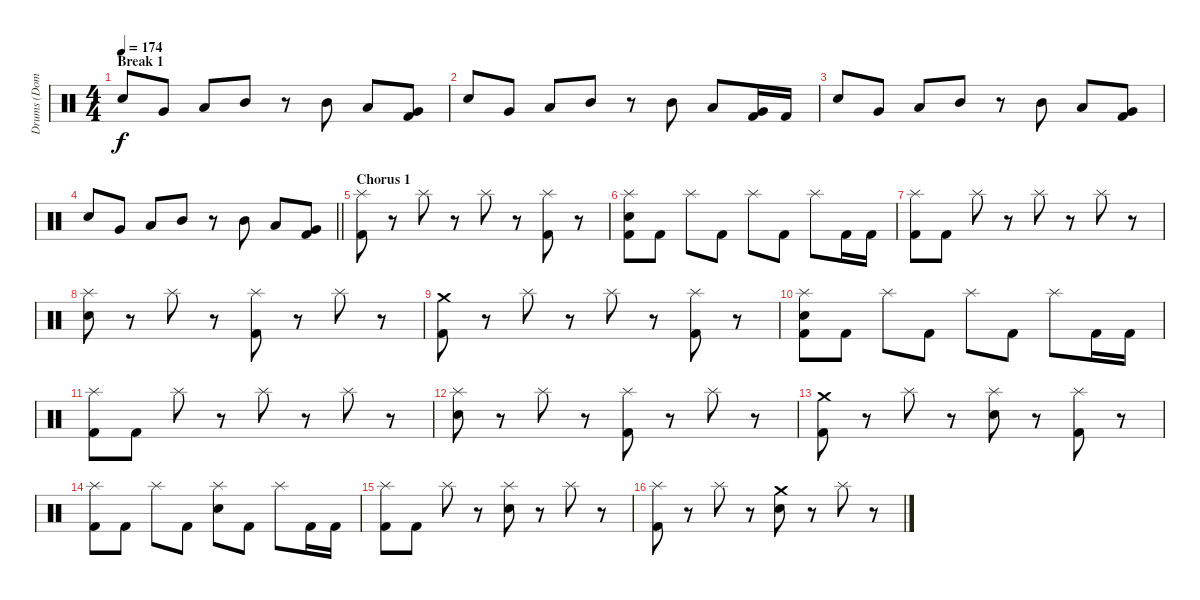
\track ("Drums (Dominik)" "Drums (Dom") {instrument percussion}
\staff {score}
\articulation defaults
\ts (4 4)
\section ("" "Break 1")
\tempo 174
\clef neutral
\ks c "Electric Snare (hit)".8{dy f} "Very Low Tom (hit)".8 "Low Tom (hit)".8 "Mid Tom (hit)".8
r.8 "Mid Tom (hit)".8 "Low Tom (hit)".8 ("Very Low Tom (hit)" "Kick (hit) 2").8 |
"Electric Snare (hit)".8 "Very Low Tom (hit)".8 "Low Tom (hit)".8 "Mid Tom (hit)".8 r.8 "Mid Tom (hit)".8 "Low Tom (hit)".8 ("Very Low Tom (hit)" "Kick (hit) 2").16 "Kick (hit) 2".16 |
"Electric Snare (hit)".8 "Very Low Tom (hit)".8 "Low Tom (hit)".8 "Mid Tom (hit)".8 r.8 "Mid Tom (hit)".8 "Low Tom (hit)".8 ("Very Low Tom (hit)" "Kick (hit) 2").8 |
\barLineRight lightlight "Electric Snare (hit)".8 "Very Low Tom (hit)".8 "Low Tom (hit)".8 "Mid Tom (hit)".8
r.8 "Mid Tom (hit)".8 "Low Tom (hit)".8 ("Very Low Tom (hit)" "Kick (hit) 2").8 |
\section ("" "Chorus 1")
("Splash (hit)" "Kick (hit) 2").8 r.8 "Splash (hit)".8 r.8 "Splash (hit)".8 r.8 ("Splash (hit)" "Kick (hit) 2").8 r.8 |
("Splash (hit)" "Electric Snare (hit)" "Kick (hit) 2").8 "Kick (hit) 2".8 "Splash (hit)".8 "Kick (hit) 2".8 "Splash (hit)".8 "Kick (hit) 2".8 "Splash (hit)".8 "Kick (hit) 2".16 "Kick (hit) 2".16 |
("Splash (hit)" "Kick (hit) 2").8 "Kick (hit) 2".8 "Splash (hit)".8 r.8 "Splash (hit)".8 r.8 "Splash (hit)".8 r.8 |
("Splash (hit)" "Electric Snare (hit)").8 r.8 "Splash (hit)".8 r.8 ("Splash (hit)" "Kick (hit) 2").8 r.8 "Splash (hit)".8 r.8 |
("Crash medium (hit)" "Kick (hit) 2").8 r.8 "Splash (hit)".8 r.8 "Splash (hit)".8 r.8 ("Splash (hit)" "Kick (hit) 2").8 r.8 |
("Splash (hit)" "Electric Snare (hit)" "Kick (hit) 2").8 "Kick (hit) 2".8 "Splash (hit)".8 "Kick (hit) 2".8 "Splash (hit)".8 "Kick (hit) 2".8 "Splash (hit)".8 "Kick (hit) 2".16 "Kick (hit) 2".16 |
("Splash (hit)" "Kick (hit) 2").8 "Kick (hit) 2".8 "Splash (hit)".8 r.8 "Splash (hit)".8 r.8 "Splash (hit)".8 r.8 |
("Splash (hit)" "Electric Snare (hit)").8 r.8 "Splash (hit)".8 r.8 ("Splash (hit)" "Kick (hit) 2").8 r.8 "Splash (hit)".8 r.8 |
("Crash medium (hit)" "Kick (hit) 2").8 r.8 "Splash (hit)".8 r.8 ("Splash (hit)" "Electric Snare (hit)").8 r.8 ("Splash (hit)" "Kick (hit) 2").8 r.8 |
("Splash (hit)" "Kick (hit) 2").8 "Kick (hit) 2".8 "Splash (hit)".8 "Kick (hit) 2".8 ("Splash (hit)" "Electric Snare (hit)").8 "Kick (hit) 2".8 "Splash (hit)".8 "Kick (hit) 2".16 "Kick (hit) 2".16 |
("Splash (hit)" "Kick (hit) 2").8 "Kick (hit) 2".8 "Splash (hit)".8 r.8 ("Splash (hit)" "Electric Snare (hit)").8 r.8 "Splash (hit)".8 r.8 |
("Splash (hit)" "Kick (hit) 2").8 r.8 "Splash (hit)".8 r.8 ("Crash medium (hit)" "Electric Snare (hit)").8 r.8 "Splash (hit)".8 r.8
